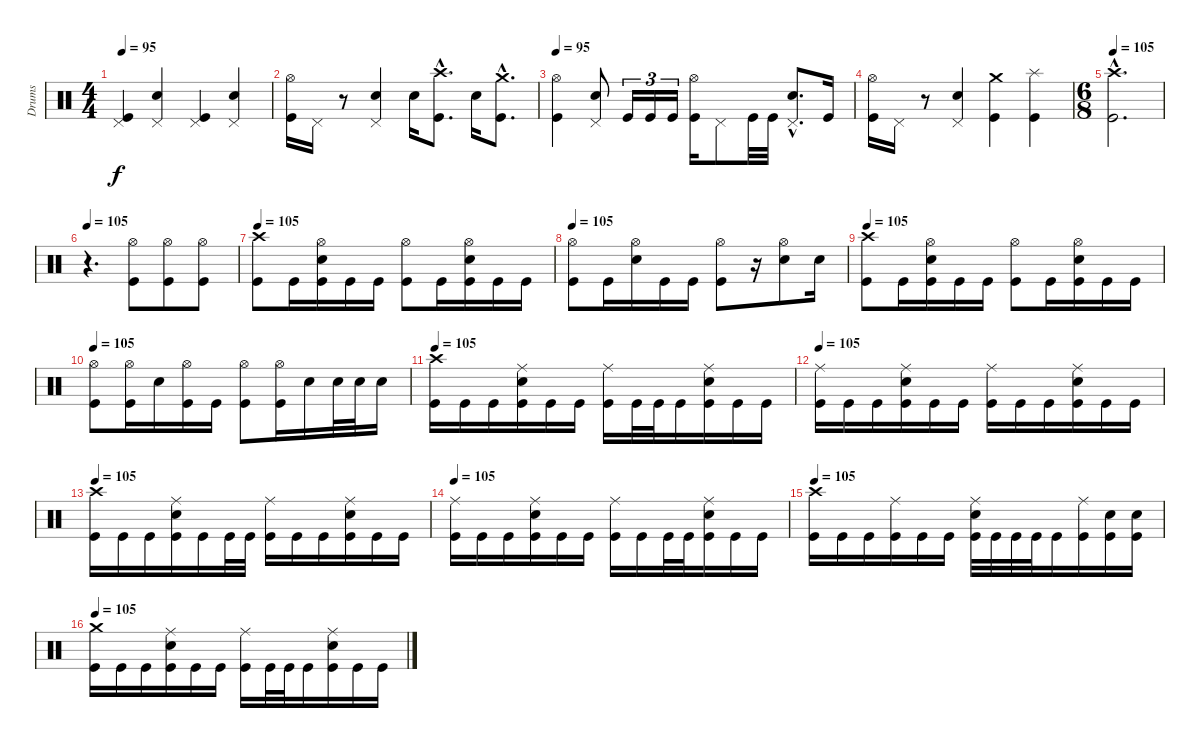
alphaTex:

\track ("Drums" "Drums") {instrument percussion}
\staff {score}
\articulation defaults
\ts (4 4)
\tempo 95
\clef neutral
\ks c
("Pedal Hi-Hat (hit)" "Kick (hit)").4{dy f} ("Pedal Hi-Hat (hit)" "Electric Snare (hit)").4 ("Pedal Hi-Hat (hit)" "Kick (hit)").4 ("Pedal Hi-Hat (hit)" "Electric Snare (hit)").4 |
("Hi-Hat (open)" "Kick (hit)").16 "Pedal Hi-Hat (hit)".16 r.8 ("Pedal Hi-Hat (hit)" "Electric Snare (hit)").4 "Electric Snare (hit)".16 ("Crash high (hit)"{hac} "Kick (hit)"{hac}).8{d} "Electric Snare (hit)".16 ("Crash medium (hit)"{hac} "Kick (hit)"{hac}).8{d} |
\tempo 95
("Hi-Hat (open)" "Kick (hit)").4 ("Pedal Hi-Hat (hit)" "Electric Snare (hit)").8 "Kick (hit)".16{tu (3 2)} "Kick (hit)".16{tu (3 2)} "Kick (hit)".16{tu (3 2)} ("Hi-Hat (open)" "Kick (hit)").16 "Pedal Hi-Hat (hit)".8 "Kick (hit)".32 "Kick (hit)".32 ("Pedal Hi-Hat (hit)"{hac} "Electric Snare (hit)"{hac}).8{d} "Kick (hit)".16 |
("Hi-Hat (open)" "Kick (hit)").16 "Pedal Hi-Hat (hit)".16 r.8 ("Pedal Hi-Hat (hit)" "Electric Snare (hit)").4 ("Crash medium (hit)" "Kick (hit)").4 ("Splash (hit)" "Kick (hit)").4 |
\ts (6 8)
\tempo 105
("Crash high (hit)"{hac} "Kick (hit)"{hac}).2{d} |
\tempo 105
r.4{d} ("Hi-Hat (open)" "Kick (hit)").8 ("Hi-Hat (open)" "Kick (hit)").8 ("Hi-Hat (open)" "Kick (hit)").8 |
\tempo 105
("Crash high (hit)" "Kick (hit)").8 "Kick (hit)".16 ("Hi-Hat (open)" "Electric Snare (hit)" "Kick (hit)").16 "Kick (hit)".16 "Kick (hit)".16 ("Hi-Hat (open)" "Kick (hit)").8 "Kick (hit)".16 ("Hi-Hat (open)" "Electric Snare (hit)" "Kick (hit)").16 "Kick (hit)".16 "Kick (hit)".16 |
\tempo 105
("Hi-Hat (open)" "Kick (hit)").8 "Kick (hit)".16 ("Hi-Hat (open)" "Electric Snare (hit)").16 "Kick (hit)".16 "Kick (hit)".16 ("Hi-Hat (open)" "Kick (hit)").8 r.16 ("Hi-Hat (open)" "Electric Snare (hit)").8 "Electric Snare (hit)".16 |
\tempo 105
("Crash high (hit)" "Kick (hit)").8 "Kick (hit)".16 ("Hi-Hat (open)" "Electric Snare (hit)" "Kick (hit)").16 "Kick (hit)".16 "Kick (hit)".16 ("Hi-Hat (open)" "Kick (hit)").8 "Kick (hit)".16 ("Hi-Hat (open)" "Electric Snare (hit)" "Kick (hit)").16 "Kick (hit)".16 "Kick (hit)".16 |
\tempo 105
("Hi-Hat (open)" "Kick (hit)").8 ("Hi-Hat (open)" "Kick (hit)").16 "Electric Snare (hit)".16 ("Hi-Hat (open)" "Kick (hit)").16 "Kick (hit)".16 ("Hi-Hat (open)" "Kick (hit)").8 ("Hi-Hat (open)" "Kick (hit)").16 "Electric Snare (hit)".16 "Electric Snare (hit)".32 "Electric Snare (hit)".32 "Electric Snare (hit)".16 |
\tempo 105
("Crash high (hit)" "Kick (hit)").16 "Kick (hit)".16 "Kick (hit)".16 ("Ride (middle)" "Electric Snare (hit)" "Kick (hit)").16 "Kick (hit)".16 "Kick (hit)".16 ("Ride (middle)" "Kick (hit)").16 "Kick (hit)".32 "Kick (hit)".32 "Kick (hit)".16 ("Ride (middle)" "Electric Snare (hit)" "Kick (hit)").16 "Kick (hit)".16 "Kick (hit)".16 |
\tempo 105
("Ride (middle)" "Kick (hit)").16 "Kick (hit)".16 "Kick (hit)".16 ("Ride (middle)" "Electric Snare (hit)" "Kick (hit)").16 "Kick (hit)".16 "Kick (hit)".16 ("Ride (middle)" "Kick (hit)").16 "Kick (hit)".16 "Kick (hit)".16 ("Ride (middle)" "Electric Snare (hit)" "Kick (hit)").16 "Kick (hit)".16 "Kick (hit)".16 |
\tempo 105
("Crash high (hit)" "Kick (hit)").16 "Kick (hit)".16 "Kick (hit)".16 ("Ride (middle)" "Electric Snare (hit)" "Kick (hit)").16 "Kick (hit)".16 "Kick (hit)".32 "Kick (hit)".32 ("Ride (middle)" "Kick (hit)").16 "Kick (hit)".16 "Kick (hit)".16 ("Ride (middle)" "Electric Snare (hit)" "Kick (hit)").16 "Kick (hit)".16 "Kick (hit)".16 |
\tempo 105
("Ride (middle)" "Kick (hit)").16 "Kick (hit)".16 "Kick (hit)".16 ("Ride (middle)" "Electric Snare (hit)" "Kick (hit)").16 "Kick (hit)".16 "Kick (hit)".16 ("Ride (middle)" "Kick (hit)").16 "Kick (hit)".16 "Kick (hit)".32 "Kick (hit)".32 ("Ride (middle)" "Electric Snare (hit)" "Kick (hit)").16 "Kick (hit)".16 "Kick (hit)".16 |
\tempo 105
("Crash high (hit)" "Kick (hit)").16 "Kick (hit)".16 "Kick (hit)".16 ("Ride (middle)" "Kick (hit)").16 "Kick (hit)".16 "Kick (hit)".16 ("Ride (middle)" "Electric Snare (hit)" "Kick (hit)").32 "Kick (hit)".32 "Kick (hit)".32 "Kick (hit)".32 "Kick (hit)".16 ("Ride (middle)" "Kick (hit)").16 ("Electric Snare (hit)" "Kick (hit)").16 ("Electric Snare (hit)" "Kick (hit)").16 |
\tempo 105
("Crash medium (hit)" "Kick (hit)").16 "Kick (hit)".16 "Kick (hit)".16 ("Ride (middle)" "Electric Snare (hit)" "Kick (hit)").16 "Kick (hit)".16 "Kick (hit)".16 ("Ride (middle)" "Kick (hit)").16 "Kick (hit)".32 "Kick (hit)".32 "Kick (hit)".16 ("Ride (middle)" "Electric Snare (hit)" "Kick (hit)").16 "Kick (hit)".16 "Kick (hit)".16
